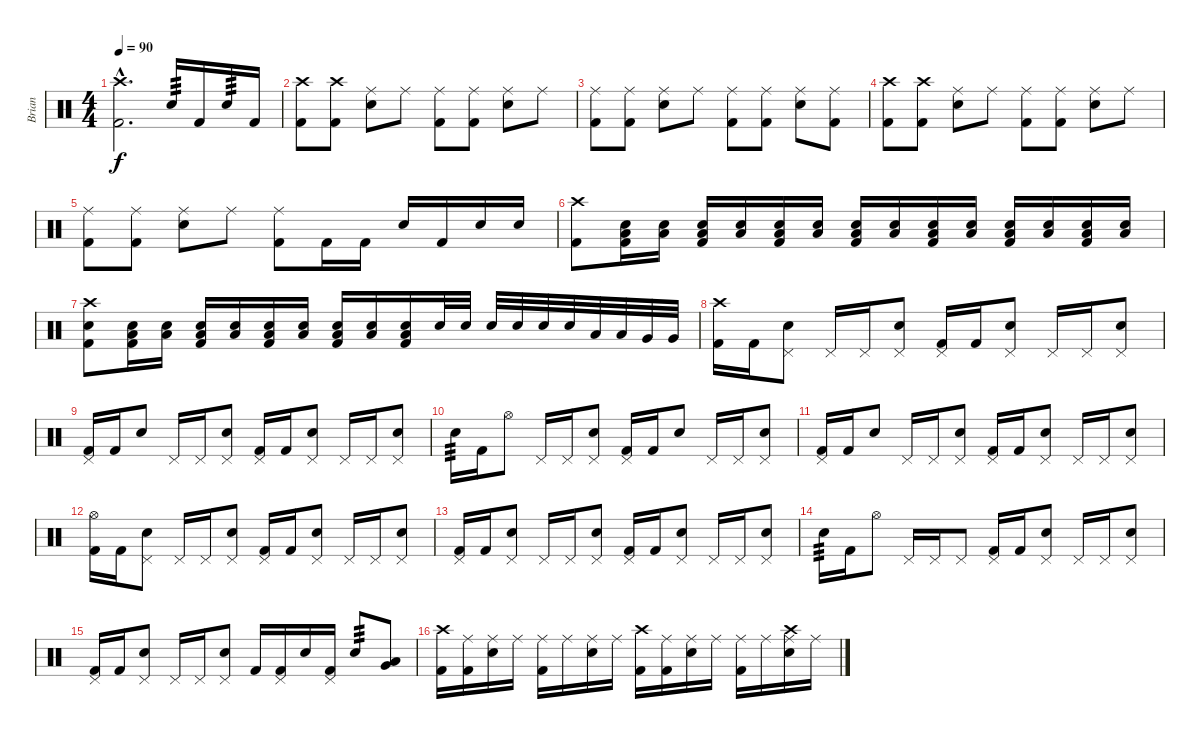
\track ("Brian" "Brian") {instrument percussion}
\staff {score}
\articulation defaults
\ts (4 4)
\tempo 90
\clef neutral
\ks c
("Crash high (hit)"{hac} "Kick (hit) 2"{hac}).2{d dy f} "Electric Snare (hit)".16{tp 3} "Kick (hit) 2".16 "Electric Snare (hit)".16{tp 3} "Kick (hit) 2".16 |
("Crash high (hit)" "Kick (hit) 2").8 ("Crash high (hit)" "Kick (hit) 2").8 ("Ride (middle)" "Electric Snare (hit)").8 "Ride (middle)".8 ("Ride (middle)" "Kick (hit) 2").8 ("Ride (middle)" "Kick (hit) 2").8 ("Ride (middle)" "Electric Snare (hit)").8 "Ride (middle)".8 |
("Ride (middle)" "Kick (hit) 2").8 ("Ride (middle)" "Kick (hit) 2").8 ("Ride (middle)" "Electric Snare (hit)").8 "Ride (middle)".8 ("Ride (middle)" "Kick (hit) 2").8 ("Ride (middle)" "Kick (hit) 2").8 ("Ride (middle)" "Electric Snare (hit)").8 ("Ride (middle)" "Kick (hit) 2").8 |
("Crash high (hit)" "Kick (hit) 2").8 ("Crash high (hit)" "Kick (hit) 2").8 ("Ride (middle)" "Electric Snare (hit)").8 "Ride (middle)".8 ("Ride (middle)" "Kick (hit) 2").8 ("Ride (middle)" "Kick (hit) 2").8 ("Ride (middle)" "Electric Snare (hit)").8 "Ride (middle)".8 |
("Ride (middle)" "Kick (hit) 2").8 ("Ride (middle)" "Kick (hit) 2").8 ("Ride (middle)" "Electric Snare (hit)").8 "Ride (middle)".8 ("Ride (middle)" "Kick (hit) 2").8 "Kick (hit) 2".16 "Kick (hit) 2".16 "Electric Snare (hit)".16 "Kick (hit) 2".16 "Electric Snare (hit)".16 "Electric Snare (hit)".16 |
("Crash high (hit)" "Kick (hit) 2").8 ("Low Floor Tom (hit)" "Electric Snare (hit)" "Kick (hit) 2").16 ("Low Floor Tom (hit)" "Electric Snare (hit)").16 ("Low Floor Tom (hit)" "Electric Snare (hit)" "Kick (hit) 2").16 ("Low Floor Tom (hit)" "Electric Snare (hit)").16 ("Low Floor Tom (hit)" "Electric Snare (hit)" "Kick (hit) 2").16 ("Low Floor Tom (hit)" "Electric Snare (hit)").16 ("Low Floor Tom (hit)" "Electric Snare (hit)" "Kick (hit) 2").16 ("Low Floor Tom (hit)" "Electric Snare (hit)").16 ("Low Floor Tom (hit)" "Electric Snare (hit)" "Kick (hit) 2").16 ("Low Floor Tom (hit)" "Electric Snare (hit)").16 ("Low Floor Tom (hit)" "Electric Snare (hit)" "Kick (hit) 2").16 ("Low Floor Tom (hit)" "Electric Snare (hit)").16 ("Low Floor Tom (hit)" "Electric Snare (hit)" "Kick (hit) 2").16 ("Low Floor Tom (hit)" "Electric Snare (hit)").16 |
("Crash high (hit)" "Electric Snare (hit)" "Kick (hit) 2").8 ("Low Floor Tom (hit)" "Electric Snare (hit)" "Kick (hit) 2").16 ("Low Floor Tom (hit)" "Electric Snare (hit)").16 ("Low Floor Tom (hit)" "Electric Snare (hit)" "Kick (hit) 2").16 ("Low Floor Tom (hit)" "Electric Snare (hit)").16 ("Low Floor Tom (hit)" "Electric Snare (hit)" "Kick (hit) 2").16 ("Low Floor Tom (hit)" "Electric Snare (hit)").16 ("Low Floor Tom (hit)" "Electric Snare (hit)" "Kick (hit) 2").16 ("Low Floor Tom (hit)" "Electric Snare (hit)").16 ("Low Floor Tom (hit)" "Electric Snare (hit)" "Kick (hit) 2").16 "Electric Snare (hit)".32 "Electric Snare (hit)".32 "Electric Snare (hit)".32 "Electric Snare (hit)".32 "Electric Snare (hit)".32 "Electric Snare (hit)".32 "Low Floor Tom (hit)".32 "Low Floor Tom (hit)".32 "Very Low Tom (hit)".32 "Very Low Tom (hit)".32 |
("Crash high (hit)" "Kick (hit) 2").16 "Kick (hit) 2".16 ("Pedal Hi-Hat (hit)" "Electric Snare (hit)").8 "Pedal Hi-Hat (hit)".16 "Pedal Hi-Hat (hit)".16 ("Pedal Hi-Hat (hit)" "Electric Snare (hit)").8 ("Pedal Hi-Hat (hit)" "Kick (hit) 2").16 "Kick (hit) 2".16 ("Pedal Hi-Hat (hit)" "Electric Snare (hit)").8 "Pedal Hi-Hat (hit)".16 "Pedal Hi-Hat (hit)".16 ("Pedal Hi-Hat (hit)" "Electric Snare (hit)").8 |
("Pedal Hi-Hat (hit)" "Kick (hit) 2").16 "Kick (hit) 2".16 "Electric Snare (hit)".8 "Pedal Hi-Hat (hit)".16 "Pedal Hi-Hat (hit)".16 ("Pedal Hi-Hat (hit)" "Electric Snare (hit)").8 ("Pedal Hi-Hat (hit)" "Kick (hit) 2").16 "Kick (hit) 2".16 ("Pedal Hi-Hat (hit)" "Electric Snare (hit)").8 "Pedal Hi-Hat (hit)".16 "Pedal Hi-Hat (hit)".16 ("Pedal Hi-Hat (hit)" "Electric Snare (hit)").8 |
"Electric Snare (hit)".16{tp 3} "Kick (hit) 2".16 "Hi-Hat (open)".8 "Pedal Hi-Hat (hit)".16 "Pedal Hi-Hat (hit)".16 ("Pedal Hi-Hat (hit)" "Electric Snare (hit)").8 ("Pedal Hi-Hat (hit)" "Kick (hit) 2").16 "Kick (hit) 2".16 "Electric Snare (hit)".8 "Pedal Hi-Hat (hit)".16 "Pedal Hi-Hat (hit)".16 ("Pedal Hi-Hat (hit)" "Electric Snare (hit)").8 |
("Pedal Hi-Hat (hit)" "Kick (hit) 2").16 "Kick (hit) 2".16 "Electric Snare (hit)".8 "Pedal Hi-Hat (hit)".16 "Pedal Hi-Hat (hit)".16 ("Pedal Hi-Hat (hit)" "Electric Snare (hit)").8 ("Pedal Hi-Hat (hit)" "Kick (hit) 2").16 "Kick (hit) 2".16 ("Pedal Hi-Hat (hit)" "Electric Snare (hit)").8 "Pedal Hi-Hat (hit)".16 "Pedal Hi-Hat (hit)".16 ("Pedal Hi-Hat (hit)" "Electric Snare (hit)").8 |
("Hi-Hat (open)" "Kick (hit) 2").16 "Kick (hit) 2".16 ("Pedal Hi-Hat (hit)" "Electric Snare (hit)").8 "Pedal Hi-Hat (hit)".16 "Pedal Hi-Hat (hit)".16 ("Pedal Hi-Hat (hit)" "Electric Snare (hit)").8 ("Pedal Hi-Hat (hit)" "Kick (hit) 2").16 "Kick (hit) 2".16 ("Pedal Hi-Hat (hit)" "Electric Snare (hit)").8 "Pedal Hi-Hat (hit)".16 "Pedal Hi-Hat (hit)".16 ("Pedal Hi-Hat (hit)" "Electric Snare (hit)").8 |
("Pedal Hi-Hat (hit)" "Kick (hit) 2").16 "Kick (hit) 2".16 ("Pedal Hi-Hat (hit)" "Electric Snare (hit)").8 "Pedal Hi-Hat (hit)".16 "Pedal Hi-Hat (hit)".16 ("Pedal Hi-Hat (hit)" "Electric Snare (hit)").8 ("Pedal Hi-Hat (hit)" "Kick (hit) 2").16 "Kick (hit) 2".16 ("Pedal Hi-Hat (hit)" "Electric Snare (hit)").8 "Pedal Hi-Hat (hit)".16 "Pedal Hi-Hat (hit)".16 ("Pedal Hi-Hat (hit)" "Electric Snare (hit)").8 |
"Electric Snare (hit)".16{tp 3} "Kick (hit) 2".16 "Hi-Hat (open)".8 "Pedal Hi-Hat (hit)".16 "Pedal Hi-Hat (hit)".16 "Pedal Hi-Hat (hit)".8 ("Pedal Hi-Hat (hit)" "Kick (hit) 2").16 "Kick (hit) 2".16 ("Pedal Hi-Hat (hit)" "Electric Snare (hit)").8 "Pedal Hi-Hat (hit)".16 "Pedal Hi-Hat (hit)".16 ("Pedal Hi-Hat (hit)" "Electric Snare (hit)").8 |
("Pedal Hi-Hat (hit)" "Kick (hit) 2").16 "Kick (hit) 2".16 ("Pedal Hi-Hat (hit)" "Electric Snare (hit)").8 "Pedal Hi-Hat (hit)".16 "Pedal Hi-Hat (hit)".16 ("Pedal Hi-Hat (hit)" "Electric Snare (hit)").8 "Kick (hit) 2".16 ("Pedal Hi-Hat (hit)" "Kick (hit) 2").16 "Electric Snare (hit)".16 ("Pedal Hi-Hat (hit)" "Kick (hit) 2").16 "Electric Snare (hit)".8{tp 3} ("Low Floor Tom (hit)" "Very Low Tom (hit)").8 |
("Crash high (hit)" "Kick (hit) 2").16 ("Ride (middle)" "Kick (hit) 2").16 ("Ride (middle)" "Electric Snare (hit)").16 "Ride (middle)".16 ("Ride (middle)" "Kick (hit) 2").16 "Ride (middle)".16 ("Ride (middle)" "Electric Snare (hit)").16 "Ride (middle)".16 ("Crash high (hit)" "Kick (hit) 2").16 ("Ride (middle)" "Kick (hit) 2").16 ("Ride (middle)" "Electric Snare (hit)").16 "Ride (middle)".16 ("Ride (middle)" "Kick (hit) 2").16 "Ride (middle)".16 ("Crash high (hit)" "Ride (middle)" "Electric Snare (hit)").16 "Ride (middle)".16
